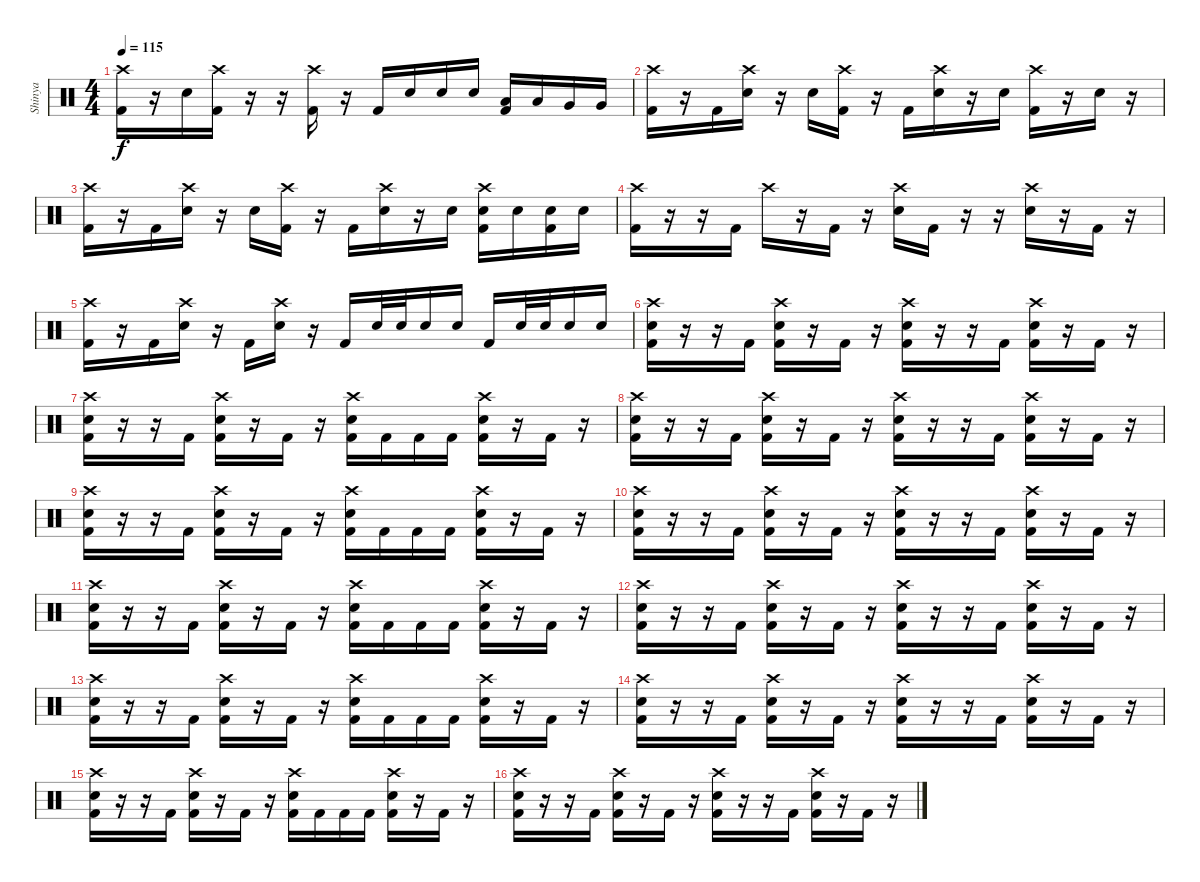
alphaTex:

\track ("Shinya" "Shinya") {instrument percussion}
\staff {score}
\articulation defaults
\ts (4 4)
\tempo 115
\clef neutral
\ks c
("Crash high (hit)" "Kick (hit) 2").16{dy f} r.16 "Electric Snare (hit)".16 ("Crash high (hit)" "Kick (hit) 2").16 r.16 r.16 ("Crash high (hit)" "Kick (hit) 2").16 r.16 "Kick (hit) 2".16 "Electric Snare (hit)".16 "Electric Snare (hit)".16 "Electric Snare (hit)".16 ("Low Tom (hit)" "Kick (hit) 2").16 "Low Tom (hit)".16 "Very Low Tom (hit)".16 "Very Low Tom (hit)".16 |
("Crash high (hit)" "Kick (hit) 2").16 r.16 "Kick (hit) 2".16 ("Crash high (hit)" "Electric Snare (hit)").16 r.16 "Electric Snare (hit)".16 ("Crash high (hit)" "Kick (hit) 2").16 r.16 "Kick (hit) 2".16 ("Crash high (hit)" "Electric Snare (hit)").16 r.16 "Electric Snare (hit)".16 ("Crash high (hit)" "Kick (hit) 2").16 r.16 "Electric Snare (hit)".16 r.16 |
("Crash high (hit)" "Kick (hit) 2").16 r.16 "Kick (hit) 2".16 ("Crash high (hit)" "Electric Snare (hit)").16 r.16 "Electric Snare (hit)".16 ("Crash high (hit)" "Kick (hit) 2").16 r.16 "Kick (hit) 2".16 ("Crash high (hit)" "Electric Snare (hit)").16 r.16 "Electric Snare (hit)".16 ("Crash high (hit)" "Electric Snare (hit)" "Kick (hit) 2").16 "Electric Snare (hit)".16 ("Electric Snare (hit)" "Kick (hit) 2").16 "Electric Snare (hit)".16 |
("Crash high (hit)" "Kick (hit) 2").16 r.16 r.16 "Kick (hit) 2".16 "Crash high (hit)".16 r.16 "Kick (hit) 2".16 r.16 ("Crash high (hit)" "Electric Snare (hit)").16 "Kick (hit) 2".16 r.16 r.16 ("Crash high (hit)" "Electric Snare (hit)").16 r.16 "Kick (hit) 2".16 r.16 |
("Crash high (hit)" "Kick (hit) 2").16 r.16 "Kick (hit) 2".16 ("Crash high (hit)" "Electric Snare (hit)").16 r.16 "Kick (hit) 2".16 ("Crash high (hit)" "Electric Snare (hit)").16 r.16 "Kick (hit) 2".16 "Electric Snare (hit)".32 "Electric Snare (hit)".32 "Electric Snare (hit)".16 "Electric Snare (hit)".16 "Kick (hit) 2".16 "Electric Snare (hit)".32 "Electric Snare (hit)".32 "Electric Snare (hit)".16 "Electric Snare (hit)".16 |
("Crash high (hit)" "Electric Snare (hit)" "Kick (hit) 2").16 r.16 r.16 "Kick (hit) 2".16 ("Crash high (hit)" "Electric Snare (hit)" "Kick (hit) 2").16 r.16 "Kick (hit) 2".16 r.16 ("Crash high (hit)" "Electric Snare (hit)" "Kick (hit) 2").16 r.16 r.16 "Kick (hit) 2".16 ("Crash high (hit)" "Electric Snare (hit)" "Kick (hit) 2").16 r.16 "Kick (hit) 2".16 r.16 |
("Crash high (hit)" "Electric Snare (hit)" "Kick (hit) 2").16 r.16 r.16 "Kick (hit) 2".16 ("Crash high (hit)" "Electric Snare (hit)" "Kick (hit) 2").16 r.16 "Kick (hit) 2".16 r.16 ("Crash high (hit)" "Electric Snare (hit)" "Kick (hit) 2").16 "Kick (hit) 2".16 "Kick (hit) 2".16 "Kick (hit) 2".16 ("Crash high (hit)" "Electric Snare (hit)" "Kick (hit) 2").16 r.16 "Kick (hit) 2".16 r.16 |
("Crash high (hit)" "Electric Snare (hit)" "Kick (hit) 2").16 r.16 r.16 "Kick (hit) 2".16 ("Crash high (hit)" "Electric Snare (hit)" "Kick (hit) 2").16 r.16 "Kick (hit) 2".16 r.16 ("Crash high (hit)" "Electric Snare (hit)" "Kick (hit) 2").16 r.16 r.16 "Kick (hit) 2".16 ("Crash high (hit)" "Electric Snare (hit)" "Kick (hit) 2").16 r.16 "Kick (hit) 2".16 r.16 |
("Crash high (hit)" "Electric Snare (hit)" "Kick (hit) 2").16 r.16 r.16 "Kick (hit) 2".16 ("Crash high (hit)" "Electric Snare (hit)" "Kick (hit) 2").16 r.16 "Kick (hit) 2".16 r.16 ("Crash high (hit)" "Electric Snare (hit)" "Kick (hit) 2").16 "Kick (hit) 2".16 "Kick (hit) 2".16 "Kick (hit) 2".16 ("Crash high (hit)" "Electric Snare (hit)" "Kick (hit) 2").16 r.16 "Kick (hit) 2".16 r.16 |
("Crash high (hit)" "Electric Snare (hit)" "Kick (hit) 2").16 r.16 r.16 "Kick (hit) 2".16 ("Crash high (hit)" "Electric Snare (hit)" "Kick (hit) 2").16 r.16 "Kick (hit) 2".16 r.16 ("Crash high (hit)" "Electric Snare (hit)" "Kick (hit) 2").16 r.16 r.16 "Kick (hit) 2".16 ("Crash high (hit)" "Electric Snare (hit)" "Kick (hit) 2").16 r.16 "Kick (hit) 2".16 r.16 |
("Crash high (hit)" "Electric Snare (hit)" "Kick (hit) 2").16 r.16 r.16 "Kick (hit) 2".16 ("Crash high (hit)" "Electric Snare (hit)" "Kick (hit) 2").16 r.16 "Kick (hit) 2".16 r.16 ("Crash high (hit)" "Electric Snare (hit)" "Kick (hit) 2").16 "Kick (hit) 2".16 "Kick (hit) 2".16 "Kick (hit) 2".16 ("Crash high (hit)" "Electric Snare (hit)" "Kick (hit) 2").16 r.16 "Kick (hit) 2".16 r.16 |
("Crash high (hit)" "Electric Snare (hit)" "Kick (hit) 2").16 r.16 r.16 "Kick (hit) 2".16 ("Crash high (hit)" "Electric Snare (hit)" "Kick (hit) 2").16 r.16 "Kick (hit) 2".16 r.16 ("Crash high (hit)" "Electric Snare (hit)" "Kick (hit) 2").16 r.16 r.16 "Kick (hit) 2".16 ("Crash high (hit)" "Electric Snare (hit)" "Kick (hit) 2").16 r.16 "Kick (hit) 2".16 r.16 |
("Crash high (hit)" "Electric Snare (hit)" "Kick (hit) 2").16 r.16 r.16 "Kick (hit) 2".16 ("Crash high (hit)" "Electric Snare (hit)" "Kick (hit) 2").16 r.16 "Kick (hit) 2".16 r.16 ("Crash high (hit)" "Electric Snare (hit)" "Kick (hit) 2").16 "Kick (hit) 2".16 "Kick (hit) 2".16 "Kick (hit) 2".16 ("Crash high (hit)" "Electric Snare (hit)" "Kick (hit) 2").16 r.16 "Kick (hit) 2".16 r.16 |
("Crash high (hit)" "Electric Snare (hit)" "Kick (hit) 2").16 r.16 r.16 "Kick (hit) 2".16 ("Crash high (hit)" "Electric Snare (hit)" "Kick (hit) 2").16 r.16 "Kick (hit) 2".16 r.16 ("Crash high (hit)" "Electric Snare (hit)" "Kick (hit) 2").16 r.16 r.16 "Kick (hit) 2".16 ("Crash high (hit)" "Electric Snare (hit)" "Kick (hit) 2").16 r.16 "Kick (hit) 2".16 r.16 |
("Crash high (hit)" "Electric Snare (hit)" "Kick (hit) 2").16 r.16 r.16 "Kick (hit) 2".16 ("Crash high (hit)" "Electric Snare (hit)" "Kick (hit) 2").16 r.16 "Kick (hit) 2".16 r.16 ("Crash high (hit)" "Electric Snare (hit)" "Kick (hit) 2").16 "Kick (hit) 2".16 "Kick (hit) 2".16 "Kick (hit) 2".16 ("Crash high (hit)" "Electric Snare (hit)" "Kick (hit) 2").16 r.16 "Kick (hit) 2".16 r.16 |
("Crash high (hit)" "Electric Snare (hit)" "Kick (hit) 2").16 r.16 r.16 "Kick (hit) 2".16 ("Crash high (hit)" "Electric Snare (hit)" "Kick (hit) 2").16 r.16 "Kick (hit) 2".16 r.16 ("Crash high (hit)" "Electric Snare (hit)" "Kick (hit) 2").16 r.16 r.16 "Kick (hit) 2".16 ("Crash high (hit)" "Electric Snare (hit)" "Kick (hit) 2").16 r.16 "Kick (hit) 2".16 r.16
